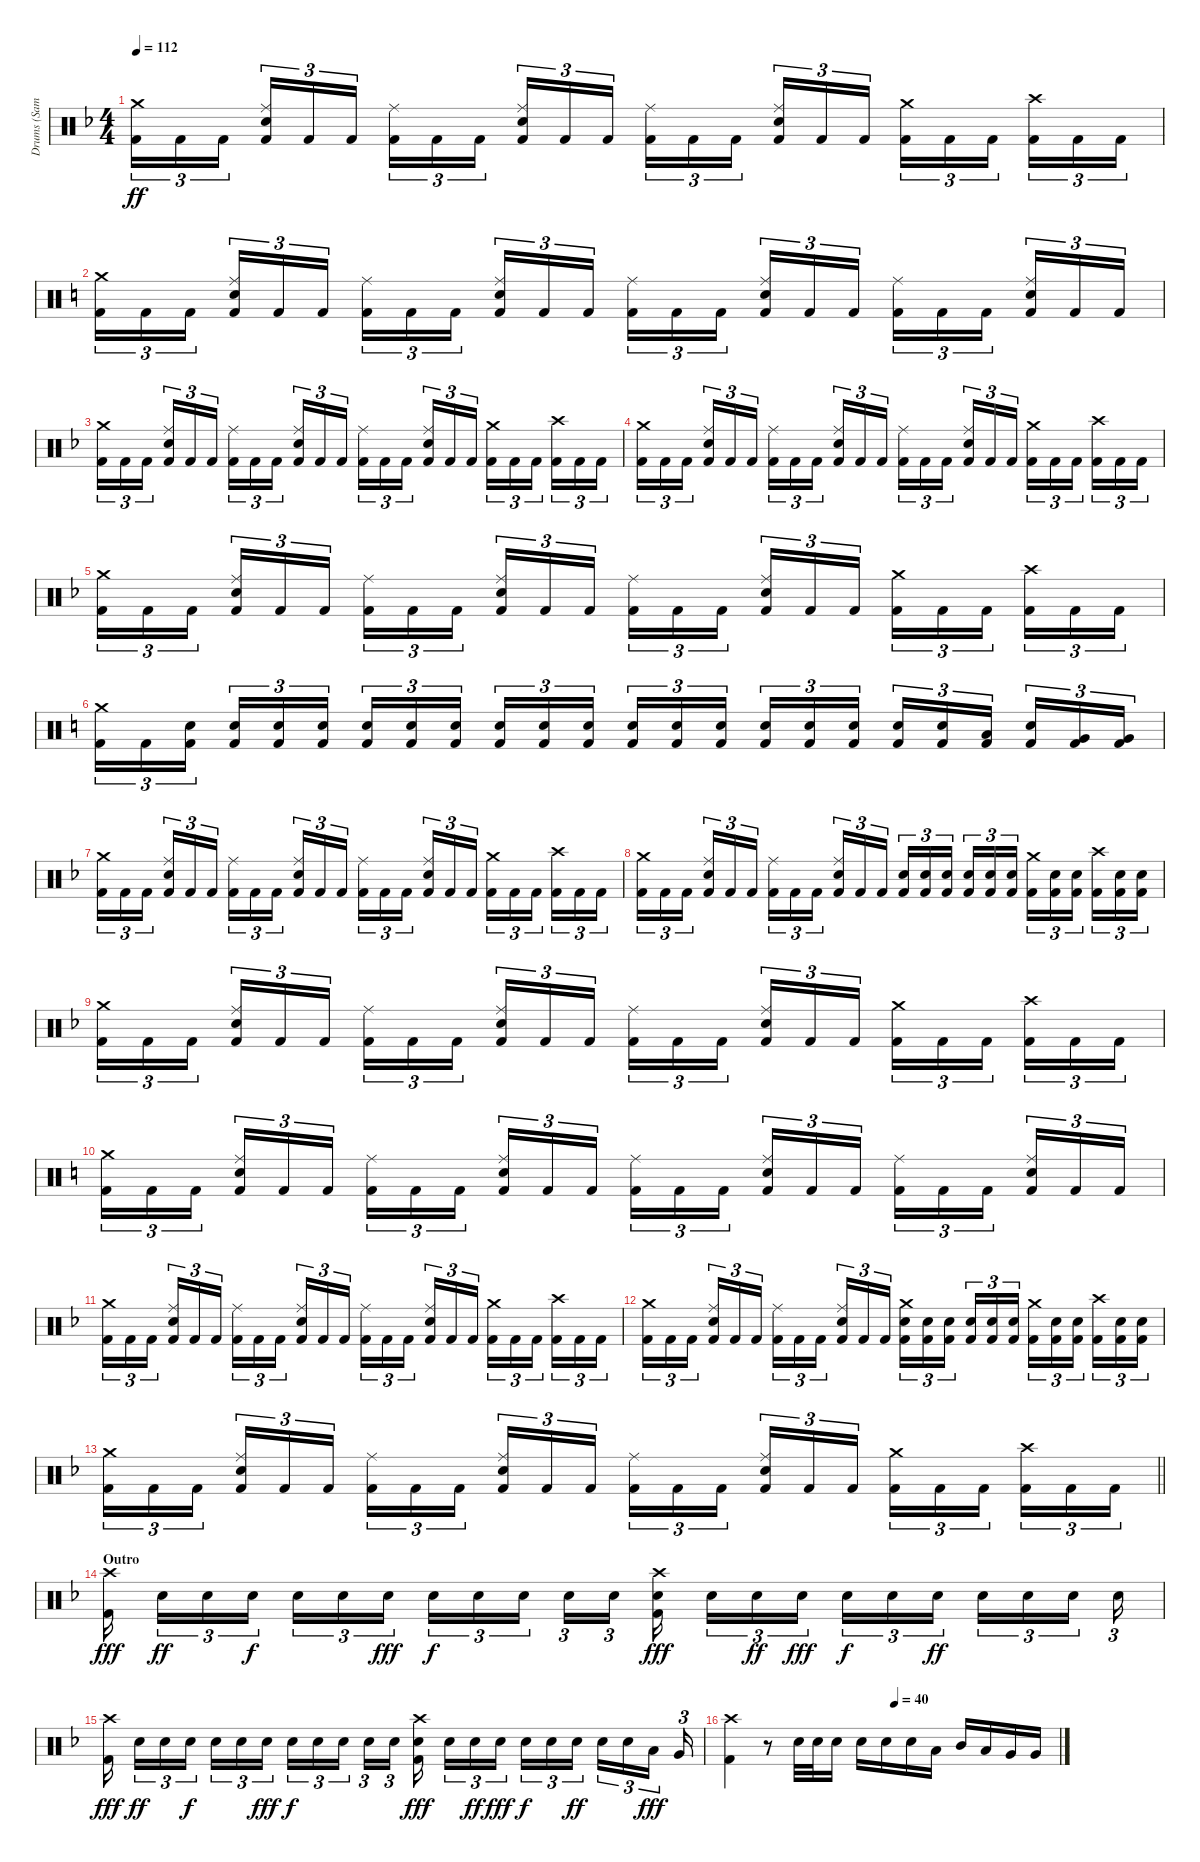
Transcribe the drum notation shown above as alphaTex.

\track ("Drums (Samuelson)" "Drums (Sam") {instrument percussion}
\staff {score}
\articulation defaults
\ts (4 4)
\tempo 112
\clef neutral
\ks f
("Crash medium (hit)" "Kick (hit) 2").16{tu (3 2) dy ff} "Kick (hit) 2".16{tu (3 2)} "Kick (hit) 2".16{tu (3 2) beam splitsecondary} ("Ride (middle)" "Snare (hit) 2" "Kick (hit) 2").16{tu (3 2)} "Kick (hit) 2".16{tu (3 2)} "Kick (hit) 2".16{tu (3 2)} ("Ride (middle)" "Kick (hit) 2").16{tu (3 2)} "Kick (hit) 2".16{tu (3 2)} "Kick (hit) 2".16{tu (3 2) beam splitsecondary} ("Ride (middle)" "Snare (hit) 2" "Kick (hit) 2").16{tu (3 2)} "Kick (hit) 2".16{tu (3 2)} "Kick (hit) 2".16{tu (3 2)} ("Ride (middle)" "Kick (hit) 2").16{tu (3 2)} "Kick (hit) 2".16{tu (3 2)} "Kick (hit) 2".16{tu (3 2) beam splitsecondary} ("Ride (middle)" "Snare (hit) 2" "Kick (hit) 2").16{tu (3 2)} "Kick (hit) 2".16{tu (3 2)} "Kick (hit) 2".16{tu (3 2)} ("Crash medium (hit)" "Kick (hit) 2").16{tu (3 2)} "Kick (hit) 2".16{tu (3 2)} "Kick (hit) 2".16{tu (3 2) beam splitsecondary} ("Crash high (hit)" "Kick (hit) 2").16{tu (3 2)} "Kick (hit) 2".16{tu (3 2)} "Kick (hit) 2".16{tu (3 2)} |
\ks c
("Crash medium (hit)" "Kick (hit) 2").16{tu (3 2)} "Kick (hit) 2".16{tu (3 2)} "Kick (hit) 2".16{tu (3 2) beam splitsecondary} ("Ride (middle)" "Snare (hit) 2" "Kick (hit) 2").16{tu (3 2)} "Kick (hit) 2".16{tu (3 2)} "Kick (hit) 2".16{tu (3 2)} ("Ride (middle)" "Kick (hit) 2").16{tu (3 2)} "Kick (hit) 2".16{tu (3 2)} "Kick (hit) 2".16{tu (3 2) beam splitsecondary} ("Ride (middle)" "Snare (hit) 2" "Kick (hit) 2").16{tu (3 2)} "Kick (hit) 2".16{tu (3 2)} "Kick (hit) 2".16{tu (3 2)} ("Ride (middle)" "Kick (hit) 2").16{tu (3 2)} "Kick (hit) 2".16{tu (3 2)} "Kick (hit) 2".16{tu (3 2) beam splitsecondary} ("Ride (middle)" "Snare (hit) 2" "Kick (hit) 2").16{tu (3 2)} "Kick (hit) 2".16{tu (3 2)} "Kick (hit) 2".16{tu (3 2)} ("Ride (middle)" "Kick (hit) 2").16{tu (3 2)} "Kick (hit) 2".16{tu (3 2)} "Kick (hit) 2".16{tu (3 2) beam splitsecondary} ("Ride (middle)" "Snare (hit) 2" "Kick (hit) 2").16{tu (3 2)} "Kick (hit) 2".16{tu (3 2)} "Kick (hit) 2".16{tu (3 2)} |
\ks f
("Crash medium (hit)" "Kick (hit) 2").16{tu (3 2)} "Kick (hit) 2".16{tu (3 2)} "Kick (hit) 2".16{tu (3 2) beam splitsecondary} ("Ride (middle)" "Snare (hit) 2" "Kick (hit) 2").16{tu (3 2)} "Kick (hit) 2".16{tu (3 2)} "Kick (hit) 2".16{tu (3 2)} ("Ride (middle)" "Kick (hit) 2").16{tu (3 2)} "Kick (hit) 2".16{tu (3 2)} "Kick (hit) 2".16{tu (3 2) beam splitsecondary} ("Ride (middle)" "Snare (hit) 2" "Kick (hit) 2").16{tu (3 2)} "Kick (hit) 2".16{tu (3 2)} "Kick (hit) 2".16{tu (3 2)} ("Ride (middle)" "Kick (hit) 2").16{tu (3 2)} "Kick (hit) 2".16{tu (3 2)} "Kick (hit) 2".16{tu (3 2) beam splitsecondary} ("Ride (middle)" "Snare (hit) 2" "Kick (hit) 2").16{tu (3 2)} "Kick (hit) 2".16{tu (3 2)} "Kick (hit) 2".16{tu (3 2)} ("Crash medium (hit)" "Kick (hit) 2").16{tu (3 2)} "Kick (hit) 2".16{tu (3 2)} "Kick (hit) 2".16{tu (3 2) beam splitsecondary} ("Crash high (hit)" "Kick (hit) 2").16{tu (3 2)} "Kick (hit) 2".16{tu (3 2)} "Kick (hit) 2".16{tu (3 2)} |
("Crash medium (hit)" "Kick (hit) 2").16{tu (3 2)} "Kick (hit) 2".16{tu (3 2)} "Kick (hit) 2".16{tu (3 2) beam splitsecondary} ("Ride (middle)" "Snare (hit) 2" "Kick (hit) 2").16{tu (3 2)} "Kick (hit) 2".16{tu (3 2)} "Kick (hit) 2".16{tu (3 2)} ("Ride (middle)" "Kick (hit) 2").16{tu (3 2)} "Kick (hit) 2".16{tu (3 2)} "Kick (hit) 2".16{tu (3 2) beam splitsecondary} ("Ride (middle)" "Snare (hit) 2" "Kick (hit) 2").16{tu (3 2)} "Kick (hit) 2".16{tu (3 2)} "Kick (hit) 2".16{tu (3 2)} ("Ride (middle)" "Kick (hit) 2").16{tu (3 2)} "Kick (hit) 2".16{tu (3 2)} "Kick (hit) 2".16{tu (3 2) beam splitsecondary} ("Ride (middle)" "Snare (hit) 2" "Kick (hit) 2").16{tu (3 2)} "Kick (hit) 2".16{tu (3 2)} "Kick (hit) 2".16{tu (3 2)} ("Crash medium (hit)" "Kick (hit) 2").16{tu (3 2)} "Kick (hit) 2".16{tu (3 2)} "Kick (hit) 2".16{tu (3 2) beam splitsecondary} ("Crash high (hit)" "Kick (hit) 2").16{tu (3 2)} "Kick (hit) 2".16{tu (3 2)} "Kick (hit) 2".16{tu (3 2)} |
("Crash medium (hit)" "Kick (hit) 2").16{tu (3 2)} "Kick (hit) 2".16{tu (3 2)} "Kick (hit) 2".16{tu (3 2) beam splitsecondary} ("Ride (middle)" "Snare (hit) 2" "Kick (hit) 2").16{tu (3 2)} "Kick (hit) 2".16{tu (3 2)} "Kick (hit) 2".16{tu (3 2)} ("Ride (middle)" "Kick (hit) 2").16{tu (3 2)} "Kick (hit) 2".16{tu (3 2)} "Kick (hit) 2".16{tu (3 2) beam splitsecondary} ("Ride (middle)" "Snare (hit) 2" "Kick (hit) 2").16{tu (3 2)} "Kick (hit) 2".16{tu (3 2)} "Kick (hit) 2".16{tu (3 2)} ("Ride (middle)" "Kick (hit) 2").16{tu (3 2)} "Kick (hit) 2".16{tu (3 2)} "Kick (hit) 2".16{tu (3 2) beam splitsecondary} ("Ride (middle)" "Snare (hit) 2" "Kick (hit) 2").16{tu (3 2)} "Kick (hit) 2".16{tu (3 2)} "Kick (hit) 2".16{tu (3 2)} ("Crash medium (hit)" "Kick (hit) 2").16{tu (3 2)} "Kick (hit) 2".16{tu (3 2)} "Kick (hit) 2".16{tu (3 2) beam splitsecondary} ("Crash high (hit)" "Kick (hit) 2").16{tu (3 2)} "Kick (hit) 2".16{tu (3 2)} "Kick (hit) 2".16{tu (3 2)} |
\ks c
("Crash medium (hit)" "Kick (hit) 2").16{tu (3 2)} "Kick (hit) 2".16{tu (3 2)} ("Snare (hit) 2" "Kick (hit) 2").16{tu (3 2) beam splitsecondary} ("Snare (hit) 2" "Kick (hit) 2").16{tu (3 2)} ("Snare (hit) 2" "Kick (hit) 2").16{tu (3 2)} ("Snare (hit) 2" "Kick (hit) 2").16{tu (3 2)} ("Snare (hit) 2" "Kick (hit) 2").16{tu (3 2)} ("Snare (hit) 2" "Kick (hit) 2").16{tu (3 2)} ("Snare (hit) 2" "Kick (hit) 2").16{tu (3 2) beam splitsecondary} ("Snare (hit) 2" "Kick (hit) 2").16{tu (3 2)} ("Snare (hit) 2" "Kick (hit) 2").16{tu (3 2)} ("Snare (hit) 2" "Kick (hit) 2").16{tu (3 2)} ("Snare (hit) 2" "Kick (hit) 2").16{tu (3 2)} ("Snare (hit) 2" "Kick (hit) 2").16{tu (3 2)} ("Snare (hit) 2" "Kick (hit) 2").16{tu (3 2) beam splitsecondary} ("Snare (hit) 2" "Kick (hit) 2").16{tu (3 2)} ("Snare (hit) 2" "Kick (hit) 2").16{tu (3 2)} ("Snare (hit) 2" "Kick (hit) 2").16{tu (3 2)} ("Snare (hit) 2" "Kick (hit) 2").16{tu (3 2)} ("Snare (hit) 2" "Kick (hit) 2").16{tu (3 2)} ("Low Tom (hit)" "Kick (hit) 2").16{tu (3 2) beam splitsecondary} ("Snare (hit) 2" "Kick (hit) 2").16{tu (3 2)} ("Very Low Tom (hit)" "Kick (hit) 2").16{tu (3 2)} ("Very Low Tom (hit)" "Kick (hit) 2").16{tu (3 2)} |
\ks f
("Crash medium (hit)" "Kick (hit) 2").16{tu (3 2)} "Kick (hit) 2".16{tu (3 2)} "Kick (hit) 2".16{tu (3 2) beam splitsecondary} ("Ride (middle)" "Snare (hit) 2" "Kick (hit) 2").16{tu (3 2)} "Kick (hit) 2".16{tu (3 2)} "Kick (hit) 2".16{tu (3 2)} ("Ride (middle)" "Kick (hit) 2").16{tu (3 2)} "Kick (hit) 2".16{tu (3 2)} "Kick (hit) 2".16{tu (3 2) beam splitsecondary} ("Ride (middle)" "Snare (hit) 2" "Kick (hit) 2").16{tu (3 2)} "Kick (hit) 2".16{tu (3 2)} "Kick (hit) 2".16{tu (3 2)} ("Ride (middle)" "Kick (hit) 2").16{tu (3 2)} "Kick (hit) 2".16{tu (3 2)} "Kick (hit) 2".16{tu (3 2) beam splitsecondary} ("Ride (middle)" "Snare (hit) 2" "Kick (hit) 2").16{tu (3 2)} "Kick (hit) 2".16{tu (3 2)} "Kick (hit) 2".16{tu (3 2)} ("Crash medium (hit)" "Kick (hit) 2").16{tu (3 2)} "Kick (hit) 2".16{tu (3 2)} "Kick (hit) 2".16{tu (3 2) beam splitsecondary} ("Crash high (hit)" "Kick (hit) 2").16{tu (3 2)} "Kick (hit) 2".16{tu (3 2)} "Kick (hit) 2".16{tu (3 2)} |
("Crash medium (hit)" "Kick (hit) 2").16{tu (3 2)} "Kick (hit) 2".16{tu (3 2)} "Kick (hit) 2".16{tu (3 2) beam splitsecondary} ("Ride (middle)" "Snare (hit) 2" "Kick (hit) 2").16{tu (3 2)} "Kick (hit) 2".16{tu (3 2)} "Kick (hit) 2".16{tu (3 2)} ("Ride (middle)" "Kick (hit) 2").16{tu (3 2)} "Kick (hit) 2".16{tu (3 2)} "Kick (hit) 2".16{tu (3 2) beam splitsecondary} ("Ride (middle)" "Snare (hit) 2" "Kick (hit) 2").16{tu (3 2)} "Kick (hit) 2".16{tu (3 2)} "Kick (hit) 2".16{tu (3 2)} ("Snare (hit) 2" "Kick (hit) 2").16{tu (3 2)} ("Snare (hit) 2" "Kick (hit) 2").16{tu (3 2)} ("Snare (hit) 2" "Kick (hit) 2").16{tu (3 2) beam splitsecondary} ("Snare (hit) 2" "Kick (hit) 2").16{tu (3 2)} ("Snare (hit) 2" "Kick (hit) 2").16{tu (3 2)} ("Snare (hit) 2" "Kick (hit) 2").16{tu (3 2)} ("Crash medium (hit)" "Kick (hit) 2").16{tu (3 2)} ("Snare (hit) 2" "Kick (hit) 2").16{tu (3 2)} ("Snare (hit) 2" "Kick (hit) 2").16{tu (3 2) beam splitsecondary} ("Crash high (hit)" "Kick (hit) 2").16{tu (3 2)} ("Snare (hit) 2" "Kick (hit) 2").16{tu (3 2)} ("Snare (hit) 2" "Kick (hit) 2").16{tu (3 2)} |
("Crash medium (hit)" "Kick (hit) 2").16{tu (3 2)} "Kick (hit) 2".16{tu (3 2)} "Kick (hit) 2".16{tu (3 2) beam splitsecondary} ("Ride (middle)" "Snare (hit) 2" "Kick (hit) 2").16{tu (3 2)} "Kick (hit) 2".16{tu (3 2)} "Kick (hit) 2".16{tu (3 2)} ("Ride (middle)" "Kick (hit) 2").16{tu (3 2)} "Kick (hit) 2".16{tu (3 2)} "Kick (hit) 2".16{tu (3 2) beam splitsecondary} ("Ride (middle)" "Snare (hit) 2" "Kick (hit) 2").16{tu (3 2)} "Kick (hit) 2".16{tu (3 2)} "Kick (hit) 2".16{tu (3 2)} ("Ride (middle)" "Kick (hit) 2").16{tu (3 2)} "Kick (hit) 2".16{tu (3 2)} "Kick (hit) 2".16{tu (3 2) beam splitsecondary} ("Ride (middle)" "Snare (hit) 2" "Kick (hit) 2").16{tu (3 2)} "Kick (hit) 2".16{tu (3 2)} "Kick (hit) 2".16{tu (3 2)} ("Crash medium (hit)" "Kick (hit) 2").16{tu (3 2)} "Kick (hit) 2".16{tu (3 2)} "Kick (hit) 2".16{tu (3 2) beam splitsecondary} ("Crash high (hit)" "Kick (hit) 2").16{tu (3 2)} "Kick (hit) 2".16{tu (3 2)} "Kick (hit) 2".16{tu (3 2)} |
\ks c
("Crash medium (hit)" "Kick (hit) 2").16{tu (3 2)} "Kick (hit) 2".16{tu (3 2)} "Kick (hit) 2".16{tu (3 2) beam splitsecondary} ("Ride (middle)" "Snare (hit) 2" "Kick (hit) 2").16{tu (3 2)} "Kick (hit) 2".16{tu (3 2)} "Kick (hit) 2".16{tu (3 2)} ("Ride (middle)" "Kick (hit) 2").16{tu (3 2)} "Kick (hit) 2".16{tu (3 2)} "Kick (hit) 2".16{tu (3 2) beam splitsecondary} ("Ride (middle)" "Snare (hit) 2" "Kick (hit) 2").16{tu (3 2)} "Kick (hit) 2".16{tu (3 2)} "Kick (hit) 2".16{tu (3 2)} ("Ride (middle)" "Kick (hit) 2").16{tu (3 2)} "Kick (hit) 2".16{tu (3 2)} "Kick (hit) 2".16{tu (3 2) beam splitsecondary} ("Ride (middle)" "Snare (hit) 2" "Kick (hit) 2").16{tu (3 2)} "Kick (hit) 2".16{tu (3 2)} "Kick (hit) 2".16{tu (3 2)} ("Ride (middle)" "Kick (hit) 2").16{tu (3 2)} "Kick (hit) 2".16{tu (3 2)} "Kick (hit) 2".16{tu (3 2) beam splitsecondary} ("Ride (middle)" "Snare (hit) 2" "Kick (hit) 2").16{tu (3 2)} "Kick (hit) 2".16{tu (3 2)} "Kick (hit) 2".16{tu (3 2)} |
\ks f
("Crash medium (hit)" "Kick (hit) 2").16{tu (3 2)} "Kick (hit) 2".16{tu (3 2)} "Kick (hit) 2".16{tu (3 2) beam splitsecondary} ("Ride (middle)" "Snare (hit) 2" "Kick (hit) 2").16{tu (3 2)} "Kick (hit) 2".16{tu (3 2)} "Kick (hit) 2".16{tu (3 2)} ("Ride (middle)" "Kick (hit) 2").16{tu (3 2)} "Kick (hit) 2".16{tu (3 2)} "Kick (hit) 2".16{tu (3 2) beam splitsecondary} ("Ride (middle)" "Snare (hit) 2" "Kick (hit) 2").16{tu (3 2)} "Kick (hit) 2".16{tu (3 2)} "Kick (hit) 2".16{tu (3 2)} ("Ride (middle)" "Kick (hit) 2").16{tu (3 2)} "Kick (hit) 2".16{tu (3 2)} "Kick (hit) 2".16{tu (3 2) beam splitsecondary} ("Ride (middle)" "Snare (hit) 2" "Kick (hit) 2").16{tu (3 2)} "Kick (hit) 2".16{tu (3 2)} "Kick (hit) 2".16{tu (3 2)} ("Crash medium (hit)" "Kick (hit) 2").16{tu (3 2)} "Kick (hit) 2".16{tu (3 2)} "Kick (hit) 2".16{tu (3 2) beam splitsecondary} ("Crash high (hit)" "Kick (hit) 2").16{tu (3 2)} "Kick (hit) 2".16{tu (3 2)} "Kick (hit) 2".16{tu (3 2)} |
("Crash medium (hit)" "Kick (hit) 2").16{tu (3 2)} "Kick (hit) 2".16{tu (3 2)} "Kick (hit) 2".16{tu (3 2) beam splitsecondary} ("Ride (middle)" "Snare (hit) 2" "Kick (hit) 2").16{tu (3 2)} "Kick (hit) 2".16{tu (3 2)} "Kick (hit) 2".16{tu (3 2)} ("Ride (middle)" "Kick (hit) 2").16{tu (3 2)} "Kick (hit) 2".16{tu (3 2)} "Kick (hit) 2".16{tu (3 2) beam splitsecondary} ("Ride (middle)" "Snare (hit) 2" "Kick (hit) 2").16{tu (3 2)} "Kick (hit) 2".16{tu (3 2)} "Kick (hit) 2".16{tu (3 2)} ("Crash medium (hit)" "Snare (hit) 2" "Kick (hit) 2").16{tu (3 2)} ("Snare (hit) 2" "Kick (hit) 2").16{tu (3 2)} ("Snare (hit) 2" "Kick (hit) 2").16{tu (3 2) beam splitsecondary} ("Snare (hit) 2" "Kick (hit) 2").16{tu (3 2)} ("Snare (hit) 2" "Kick (hit) 2").16{tu (3 2)} ("Snare (hit) 2" "Kick (hit) 2").16{tu (3 2)} ("Crash medium (hit)" "Kick (hit) 2").16{tu (3 2)} ("Snare (hit) 2" "Kick (hit) 2").16{tu (3 2)} ("Snare (hit) 2" "Kick (hit) 2").16{tu (3 2) beam splitsecondary} ("Crash high (hit)" "Kick (hit) 2").16{tu (3 2)} ("Snare (hit) 2" "Kick (hit) 2").16{tu (3 2)} ("Snare (hit) 2" "Kick (hit) 2").16{tu (3 2)} |
\barLineRight lightlight
("Crash medium (hit)" "Kick (hit) 2").16{tu (3 2)} "Kick (hit) 2".16{tu (3 2)} "Kick (hit) 2".16{tu (3 2) beam splitsecondary} ("Ride (middle)" "Snare (hit) 2" "Kick (hit) 2").16{tu (3 2)} "Kick (hit) 2".16{tu (3 2)} "Kick (hit) 2".16{tu (3 2)} ("Ride (middle)" "Kick (hit) 2").16{tu (3 2)} "Kick (hit) 2".16{tu (3 2)} "Kick (hit) 2".16{tu (3 2) beam splitsecondary} ("Ride (middle)" "Snare (hit) 2" "Kick (hit) 2").16{tu (3 2)} "Kick (hit) 2".16{tu (3 2)} "Kick (hit) 2".16{tu (3 2)} ("Ride (middle)" "Kick (hit) 2").16{tu (3 2)} "Kick (hit) 2".16{tu (3 2)} "Kick (hit) 2".16{tu (3 2) beam splitsecondary} ("Ride (middle)" "Snare (hit) 2" "Kick (hit) 2").16{tu (3 2)} "Kick (hit) 2".16{tu (3 2)} "Kick (hit) 2".16{tu (3 2)} ("Crash medium (hit)" "Kick (hit) 2").16{tu (3 2)} "Kick (hit) 2".16{tu (3 2)} "Kick (hit) 2".16{tu (3 2) beam splitsecondary} ("Crash high (hit)" "Kick (hit) 2").16{tu (3 2)} "Kick (hit) 2".16{tu (3 2)} "Kick (hit) 2".16{tu (3 2)} |
\section ("" "Outro")
("Crash high (hit)" "Kick (hit) 2").16{dy fff beam splitsecondary} "Snare (hit) 2".16{tu (3 2) dy ff} "Snare (hit) 2".16{tu (3 2)} "Snare (hit) 2".16{tu (3 2) dy f beam splitsecondary} "Snare (hit) 2".16{tu (3 2)} "Snare (hit) 2".16{tu (3 2)} "Snare (hit) 2".16{tu (3 2) dy fff beam splitsecondary} "Snare (hit) 2".16{tu (3 2) dy f} "Snare (hit) 2".16{tu (3 2)} "Snare (hit) 2".16{tu (3 2) beam splitsecondary} "Snare (hit) 2".16{tu (3 2)} "Snare (hit) 2".16{tu (3 2)} ("Crash high (hit)" "Snare (hit) 2" "Kick (hit) 2").16{dy fff beam splitsecondary} "Snare (hit) 2".16{tu (3 2)} "Snare (hit) 2".16{tu (3 2) dy ff} "Snare (hit) 2".16{tu (3 2) dy fff beam splitsecondary} "Snare (hit) 2".16{tu (3 2) dy f} "Snare (hit) 2".16{tu (3 2)} "Snare (hit) 2".16{tu (3 2) dy ff beam splitsecondary} "Snare (hit) 2".16{tu (3 2)} "Snare (hit) 2".16{tu (3 2)} "Snare (hit) 2".16{tu (3 2) beam splitsecondary} "Snare (hit) 2".16{tu (3 2)} |
("Crash high (hit)" "Kick (hit) 2").16{dy fff beam splitsecondary} "Snare (hit) 2".16{tu (3 2) dy ff} "Snare (hit) 2".16{tu (3 2)} "Snare (hit) 2".16{tu (3 2) dy f beam splitsecondary} "Snare (hit) 2".16{tu (3 2)} "Snare (hit) 2".16{tu (3 2)} "Snare (hit) 2".16{tu (3 2) dy fff beam splitsecondary} "Snare (hit) 2".16{tu (3 2) dy f} "Snare (hit) 2".16{tu (3 2)} "Snare (hit) 2".16{tu (3 2) beam splitsecondary} "Snare (hit) 2".16{tu (3 2)} "Snare (hit) 2".16{tu (3 2)} ("Crash high (hit)" "Snare (hit) 2" "Kick (hit) 2").16{dy fff beam splitsecondary} "Snare (hit) 2".16{tu (3 2)} "Snare (hit) 2".16{tu (3 2) dy ff} "Snare (hit) 2".16{tu (3 2) dy fff beam splitsecondary} "Snare (hit) 2".16{tu (3 2) dy f} "Snare (hit) 2".16{tu (3 2)} "Snare (hit) 2".16{tu (3 2) dy ff beam splitsecondary} "Snare (hit) 2".16{tu (3 2)} "Snare (hit) 2".16{tu (3 2)} "Low Tom (hit)".16{tu (3 2) dy fff beam splitsecondary} "Very Low Tom (hit)".16{tu (3 2)} |
\tempo (40 0.5)
("Crash high (hit)" "Kick (hit) 2").4 r.8 "Snare (hit) 2".32 "Snare (hit) 2".32 "Snare (hit) 2".16 "Snare (hit) 2".16 "Snare (hit) 2".16 "Snare (hit) 2".16 "Low Tom (hit)".16 "Mid Tom (hit)".16 "Low Tom (hit)".16 "Very Low Tom (hit)".16 "Very Low Tom (hit)".16
